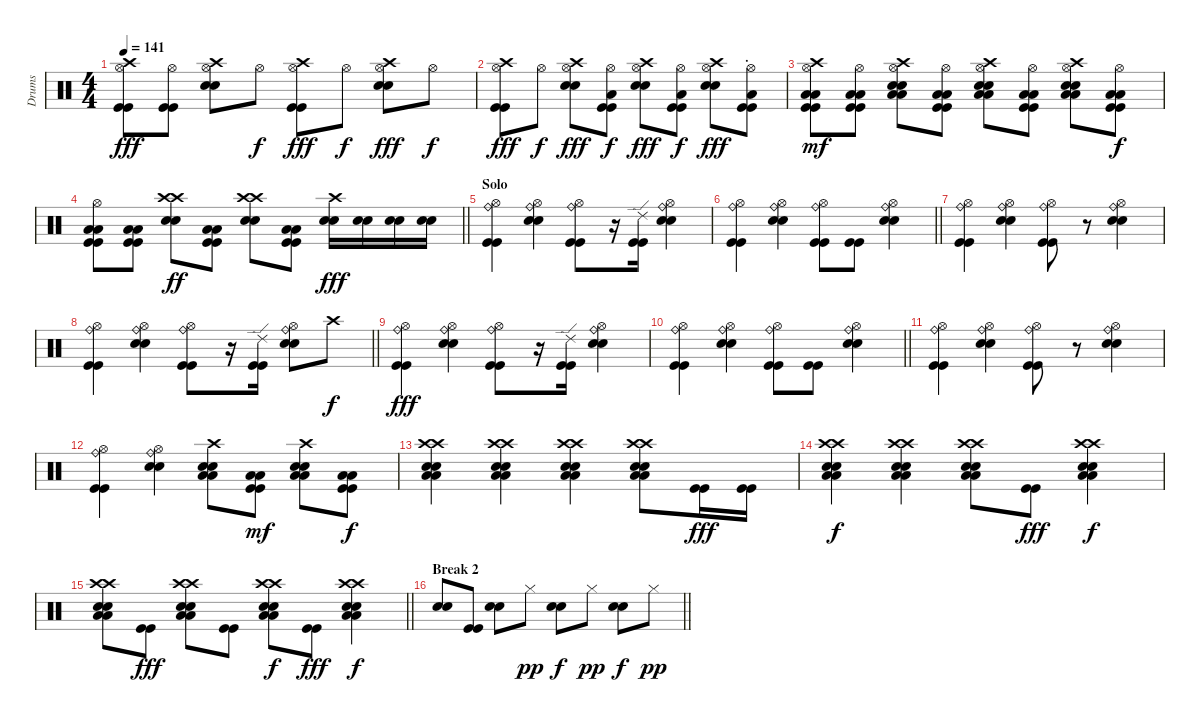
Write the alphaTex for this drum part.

\track ("Drums" "Drums") {instrument percussion}
\staff {score}
\articulation defaults
\ts (4 4)
\tempo 141
\clef neutral
\ks c
("Hi-Hat (open)" "Crash high (hit)" "Kick (hit)" "Kick (hit)").8{dy fff} ("Hi-Hat (open)" "Kick (hit)" "Kick (hit)").8 ("Hi-Hat (open)" "Crash high (hit)" "Snare (hit) 2" "Snare (hit) 2").8 "Hi-Hat (open)".8{dy f} ("Hi-Hat (open)" "Crash high (hit)" "Kick (hit)" "Kick (hit)").8{dy fff} "Hi-Hat (open)".8{dy f} ("Hi-Hat (open)" "Crash high (hit)" "Snare (hit) 2" "Snare (hit) 2").8{dy fff} "Hi-Hat (open)".8{dy f} |
("Hi-Hat (open)" "Crash high (hit)" "Kick (hit)" "Kick (hit)").8{dy fff} "Hi-Hat (open)".8{dy f} ("Hi-Hat (open)" "Crash high (hit)" "Snare (hit) 2" "Snare (hit) 2").8{dy fff} ("Hi-Hat (open)" "Low Floor Tom (hit)" "Kick (hit)" "Kick (hit)").8{dy f} ("Hi-Hat (open)" "Crash high (hit)" "Snare (hit) 2" "Snare (hit) 2").8{dy fff} ("Hi-Hat (open)" "Low Floor Tom (hit)" "Kick (hit)" "Kick (hit)").8{dy f} ("Hi-Hat (open)" "Crash high (hit)" "Snare (hit) 2" "Snare (hit) 2").8{dy fff} ("Hi-Hat (open)" "Low Floor Tom (hit)" "Kick (hit)"{st} "Kick (hit)").8 |
("Hi-Hat (open)" "Crash high (hit)" "Low Floor Tom (hit)" "Low Floor Tom (hit)" "Kick (hit)" "Kick (hit)").8{dy mf} ("Hi-Hat (open)" "Low Floor Tom (hit)" "Low Floor Tom (hit)" "Kick (hit)" "Kick (hit)").8 ("Hi-Hat (open)" "Crash high (hit)" "Snare (hit) 2" "Snare (hit) 2" "Low Floor Tom (hit)" "Low Floor Tom (hit)").8 ("Hi-Hat (open)" "Low Floor Tom (hit)" "Low Floor Tom (hit)" "Kick (hit)" "Kick (hit)").8 ("Hi-Hat (open)" "Crash high (hit)" "Snare (hit) 2" "Snare (hit) 2" "Low Floor Tom (hit)" "Low Floor Tom (hit)").8 ("Hi-Hat (open)" "Low Floor Tom (hit)" "Low Floor Tom (hit)" "Kick (hit)" "Kick (hit)").8 ("Hi-Hat (open)" "Crash high (hit)" "Snare (hit) 2" "Snare (hit) 2" "Low Floor Tom (hit)" "Low Floor Tom (hit)").8 ("Hi-Hat (open)" "Low Floor Tom (hit)" "Low Floor Tom (hit)" "Kick (hit)" "Kick (hit)").8{dy f} |
\barLineRight lightlight
("Hi-Hat (open)" "Low Floor Tom (hit)" "Low Floor Tom (hit)" "Kick (hit)" "Kick (hit)").8 ("Low Floor Tom (hit)" "Low Floor Tom (hit)" "Kick (hit)" "Kick (hit)").8 ("Crash high (hit)" "Crash high (hit)" "Snare (hit) 2" "Snare (hit) 2").8{dy ff} ("Low Floor Tom (hit)" "Low Floor Tom (hit)" "Kick (hit)" "Kick (hit)").8 ("Crash high (hit)" "Crash high (hit)" "Snare (hit) 2" "Snare (hit) 2").8 ("Low Floor Tom (hit)" "Low Floor Tom (hit)" "Kick (hit)" "Kick (hit)").8 ("Crash high (hit)" "Snare (hit) 2" "Snare (hit) 2").16{dy fff} ("Snare (hit) 2" "Snare (hit) 2").16 ("Snare (hit) 2" "Snare (hit) 2").16 ("Snare (hit) 2" "Snare (hit) 2").16 |
\section ("" "Solo")
("Ride (bell)" "Hi-Hat (open)" "Kick (hit)" "Kick (hit)").4 ("Ride (bell)" "Hi-Hat (open)" "Snare (hit) 2" "Snare (hit) 2").4 ("Ride (bell)" "Hi-Hat (open)" "Kick (hit)" "Kick (hit)").8 r.16 ("Ride (edge) 2" "Kick (hit)" "Kick (hit)").16 ("Ride (bell)" "Hi-Hat (open)" "Snare (hit) 2" "Snare (hit) 2").4 |
\barLineRight lightlight
("Ride (bell)" "Hi-Hat (open)" "Kick (hit)" "Kick (hit)").4 ("Ride (bell)" "Hi-Hat (open)" "Snare (hit) 2" "Snare (hit) 2").4 ("Ride (bell)" "Hi-Hat (open)" "Kick (hit)" "Kick (hit)").8 ("Kick (hit)" "Kick (hit)").8 ("Ride (bell)" "Hi-Hat (open)" "Snare (hit) 2" "Snare (hit) 2").4 |
("Ride (bell)" "Hi-Hat (open)" "Kick (hit)" "Kick (hit)").4 ("Ride (bell)" "Hi-Hat (open)" "Snare (hit) 2" "Snare (hit) 2").4 ("Ride (bell)" "Hi-Hat (open)" "Kick (hit)" "Kick (hit)").8 r.8 ("Ride (bell)" "Hi-Hat (open)" "Snare (hit) 2" "Snare (hit) 2").4 |
\barLineRight lightlight
("Ride (bell)" "Hi-Hat (open)" "Kick (hit)" "Kick (hit)").4 ("Ride (bell)" "Hi-Hat (open)" "Snare (hit) 2" "Snare (hit) 2").4 ("Ride (bell)" "Hi-Hat (open)" "Kick (hit)" "Kick (hit)").8 r.16 ("Ride (edge) 2" "Kick (hit)" "Kick (hit)").16 ("Ride (bell)" "Hi-Hat (open)" "Snare (hit) 2" "Snare (hit) 2").8 "Crash high (hit)".8{dy f} |
("Ride (bell)" "Hi-Hat (open)" "Kick (hit)" "Kick (hit)").4{dy fff} ("Ride (bell)" "Hi-Hat (open)" "Snare (hit) 2" "Snare (hit) 2").4 ("Ride (bell)" "Hi-Hat (open)" "Kick (hit)" "Kick (hit)").8 r.16 ("Ride (edge) 2" "Kick (hit)" "Kick (hit)").16 ("Ride (bell)" "Hi-Hat (open)" "Snare (hit) 2" "Snare (hit) 2").4 |
\barLineRight lightlight
("Ride (bell)" "Hi-Hat (open)" "Kick (hit)" "Kick (hit)").4 ("Ride (bell)" "Hi-Hat (open)" "Snare (hit) 2" "Snare (hit) 2").4 ("Ride (bell)" "Hi-Hat (open)" "Kick (hit)" "Kick (hit)").8 ("Kick (hit)" "Kick (hit)").8 ("Ride (bell)" "Hi-Hat (open)" "Snare (hit) 2" "Snare (hit) 2").4 |
("Ride (bell)" "Hi-Hat (open)" "Kick (hit)" "Kick (hit)").4 ("Ride (bell)" "Hi-Hat (open)" "Snare (hit) 2" "Snare (hit) 2").4 ("Ride (bell)" "Hi-Hat (open)" "Kick (hit)" "Kick (hit)").8 r.8 ("Ride (bell)" "Hi-Hat (open)" "Snare (hit) 2" "Snare (hit) 2").4 |
("Ride (bell)" "Hi-Hat (open)" "Kick (hit)" "Kick (hit)").4 ("Ride (bell)" "Hi-Hat (open)" "Snare (hit) 2" "Snare (hit) 2").4 ("Crash high (hit)" "Snare (hit) 2" "Snare (hit) 2" "Low Floor Tom (hit)" "Low Floor Tom (hit)").8 ("Kick (hit)" "Kick (hit)" "Low Floor Tom (hit)" "Low Floor Tom (hit)").8{dy mf} ("Crash high (hit)" "Snare (hit) 2" "Snare (hit) 2" "Low Floor Tom (hit)" "Low Floor Tom (hit)").8 ("Kick (hit)" "Kick (hit)" "Low Floor Tom (hit)" "Low Floor Tom (hit)").8{dy f} |
("Crash high (hit)" "Crash high (hit)" "Snare (hit) 2" "Snare (hit) 2" "Low Floor Tom (hit)" "Low Floor Tom (hit)").4 ("Crash high (hit)" "Crash high (hit)" "Snare (hit) 2" "Snare (hit) 2" "Low Floor Tom (hit)" "Low Floor Tom (hit)").4 ("Crash high (hit)" "Crash high (hit)" "Snare (hit) 2" "Snare (hit) 2" "Low Floor Tom (hit)" "Low Floor Tom (hit)").4 ("Crash high (hit)" "Crash high (hit)" "Snare (hit) 2" "Snare (hit) 2" "Low Floor Tom (hit)" "Low Floor Tom (hit)").8 ("Kick (hit)" "Kick (hit)").16{dy fff} ("Kick (hit)" "Kick (hit)").16 |
("Crash high (hit)" "Crash high (hit)" "Snare (hit) 2" "Snare (hit) 2" "Low Floor Tom (hit)" "Low Floor Tom (hit)").4{dy f} ("Crash high (hit)" "Crash high (hit)" "Snare (hit) 2" "Snare (hit) 2" "Low Floor Tom (hit)" "Low Floor Tom (hit)").4 ("Crash high (hit)" "Crash high (hit)" "Snare (hit) 2" "Snare (hit) 2" "Low Floor Tom (hit)" "Low Floor Tom (hit)").8 ("Kick (hit)" "Kick (hit)").8{dy fff} ("Crash high (hit)" "Crash high (hit)" "Snare (hit) 2" "Snare (hit) 2" "Low Floor Tom (hit)" "Low Floor Tom (hit)").4{dy f} |
\barLineRight lightlight
("Crash high (hit)" "Crash high (hit)" "Snare (hit) 2" "Snare (hit) 2" "Low Floor Tom (hit)" "Low Floor Tom (hit)").8 ("Kick (hit)" "Kick (hit)").8{dy fff} ("Crash high (hit)" "Crash high (hit)" "Snare (hit) 2" "Snare (hit) 2" "Low Floor Tom (hit)" "Low Floor Tom (hit)").8 ("Kick (hit)" "Kick (hit)").8 ("Crash high (hit)" "Crash high (hit)" "Snare (hit) 2" "Snare (hit) 2" "Low Floor Tom (hit)" "Low Floor Tom (hit)").8{dy f} ("Kick (hit)" "Kick (hit)").8{dy fff} ("Crash high (hit)" "Crash high (hit)" "Snare (hit) 2" "Snare (hit) 2" "Low Floor Tom (hit)" "Low Floor Tom (hit)").4{dy f} |
\section ("" "Break 2")
\barLineRight lightlight
("Snare (hit) 2" "Snare (hit) 2").8 ("Kick (hit)" "Kick (hit)").8 ("Snare (hit) 2" "Snare (hit) 2").8 "Hi-Hat (closed)".8{dy pp} ("Snare (hit) 2" "Snare (hit) 2").8{dy f} "Hi-Hat (closed)".8{dy pp} ("Snare (hit) 2" "Snare (hit) 2").8{dy f} "Hi-Hat (closed)".8{dy pp}
